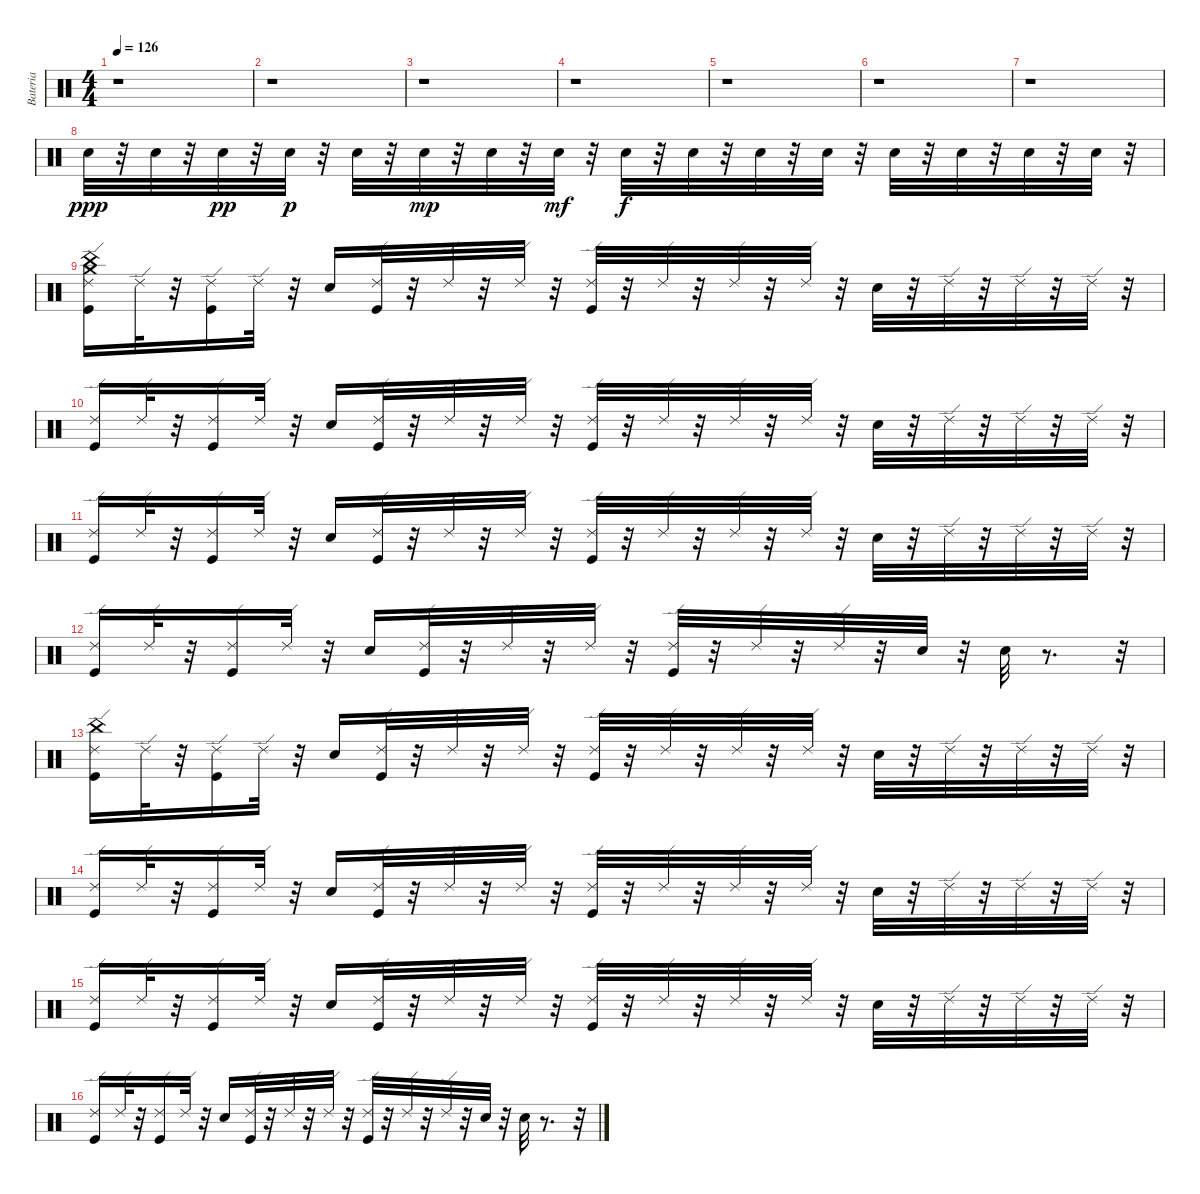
\track ("Bateria" "Bateria") {instrument percussion}
\staff {score}
\articulation defaults
\ts (4 4)
\tempo 126
\clef neutral
\ks c
r.1{dy ppp} |
r.1 |
r.1 |
r.1 |
r.1 |
r.1 |
r.1 |
"Snare (hit) 2".32 r.32 "Snare (hit) 2".32 r.32 "Snare (hit) 2".32{dy pp} r.32 "Snare (hit) 2".32{dy p} r.32 "Snare (hit) 2".32 r.32 "Snare (hit) 2".32{dy mp} r.32 "Snare (hit) 2".32 r.32 "Snare (hit) 2".32{dy mf} r.32 "Snare (hit) 2".32{dy f} r.32 "Snare (hit) 2".32 r.32 "Snare (hit) 2".32 r.32 "Snare (hit) 2".32 r.32 "Snare (hit) 2".32 r.32 "Snare (hit) 2".32 r.32 "Snare (hit) 2".32 r.32 "Snare (hit) 2".32 r.32 |
("Ride (edge) 2" "Kick (hit)" "Crash medium (hit)" "China (hit)").16 "Ride (edge) 2".32 r.32 ("Ride (edge) 2" "Kick (hit)").16 "Ride (edge) 2".32 r.32 "Snare (hit) 2".16 ("Kick (hit)" "Ride (edge) 2").32 r.32 "Ride (edge) 2".32 r.32 "Ride (edge) 2".32 r.32 ("Ride (edge) 2" "Kick (hit)").32 r.32 "Ride (edge) 2".32 r.32 "Ride (edge) 2".32 r.32 "Ride (edge) 2".32 r.32 "Snare (hit) 2".32 r.32 "Ride (edge) 2".32 r.32 "Ride (edge) 2".32 r.32 "Ride (edge) 2".32 r.32 |
("Ride (edge) 2" "Kick (hit)").16 "Ride (edge) 2".32 r.32 ("Kick (hit)" "Ride (edge) 2").16 "Ride (edge) 2".32 r.32 "Snare (hit) 2".16 ("Kick (hit)" "Ride (edge) 2").32 r.32 "Ride (edge) 2".32 r.32 "Ride (edge) 2".32 r.32 ("Ride (edge) 2" "Kick (hit)").32 r.32 "Ride (edge) 2".32 r.32 "Ride (edge) 2".32 r.32 "Ride (edge) 2".32 r.32 "Snare (hit) 2".32 r.32 "Ride (edge) 2".32 r.32 "Ride (edge) 2".32 r.32 "Ride (edge) 2".32 r.32 |
("Kick (hit)" "Ride (edge) 2").16 "Ride (edge) 2".32 r.32 ("Ride (edge) 2" "Kick (hit)").16 "Ride (edge) 2".32 r.32 "Snare (hit) 2".16 ("Ride (edge) 2" "Kick (hit)").32 r.32 "Ride (edge) 2".32 r.32 "Ride (edge) 2".32 r.32 ("Ride (edge) 2" "Kick (hit)").32 r.32 "Ride (edge) 2".32 r.32 "Ride (edge) 2".32 r.32 "Ride (edge) 2".32 r.32 "Snare (hit) 2".32 r.32 "Ride (edge) 2".32 r.32 "Ride (edge) 2".32 r.32 "Ride (edge) 2".32 r.32 |
("Ride (edge) 2" "Kick (hit)").16 "Ride (edge) 2".32 r.32 ("Kick (hit)" "Ride (edge) 2").16 "Ride (edge) 2".32 r.32 "Snare (hit) 2".16 ("Kick (hit)" "Ride (edge) 2").32 r.32 "Ride (edge) 2".32 r.32 "Ride (edge) 2".32 r.32 ("Kick (hit)" "Ride (edge) 2").32 r.32 "Ride (edge) 2".32 r.32 "Ride (edge) 2".32 r.32 "Snare (hit) 2".32 r.32 "Snare (hit) 2".32 r.8{d} r.32 |
("Ride (edge) 2" "Kick (hit)" "China (hit)").16 "Ride (edge) 2".32 r.32 ("Ride (edge) 2" "Kick (hit)").16 "Ride (edge) 2".32 r.32 "Snare (hit) 2".16 ("Kick (hit)" "Ride (edge) 2").32 r.32 "Ride (edge) 2".32 r.32 "Ride (edge) 2".32 r.32 ("Ride (edge) 2" "Kick (hit)").32 r.32 "Ride (edge) 2".32 r.32 "Ride (edge) 2".32 r.32 "Ride (edge) 2".32 r.32 "Snare (hit) 2".32 r.32 "Ride (edge) 2".32 r.32 "Ride (edge) 2".32 r.32 "Ride (edge) 2".32 r.32 |
("Ride (edge) 2" "Kick (hit)").16 "Ride (edge) 2".32 r.32 ("Kick (hit)" "Ride (edge) 2").16 "Ride (edge) 2".32 r.32 "Snare (hit) 2".16 ("Kick (hit)" "Ride (edge) 2").32 r.32 "Ride (edge) 2".32 r.32 "Ride (edge) 2".32 r.32 ("Ride (edge) 2" "Kick (hit)").32 r.32 "Ride (edge) 2".32 r.32 "Ride (edge) 2".32 r.32 "Ride (edge) 2".32 r.32 "Snare (hit) 2".32 r.32 "Ride (edge) 2".32 r.32 "Ride (edge) 2".32 r.32 "Ride (edge) 2".32 r.32 |
("Kick (hit)" "Ride (edge) 2").16 "Ride (edge) 2".32 r.32 ("Ride (edge) 2" "Kick (hit)").16 "Ride (edge) 2".32 r.32 "Snare (hit) 2".16 ("Ride (edge) 2" "Kick (hit)").32 r.32 "Ride (edge) 2".32 r.32 "Ride (edge) 2".32 r.32 ("Ride (edge) 2" "Kick (hit)").32 r.32 "Ride (edge) 2".32 r.32 "Ride (edge) 2".32 r.32 "Ride (edge) 2".32 r.32 "Snare (hit) 2".32 r.32 "Ride (edge) 2".32 r.32 "Ride (edge) 2".32 r.32 "Ride (edge) 2".32 r.32 |
("Ride (edge) 2" "Kick (hit)").16 "Ride (edge) 2".32 r.32 ("Kick (hit)" "Ride (edge) 2").16 "Ride (edge) 2".32 r.32 "Snare (hit) 2".16 ("Kick (hit)" "Ride (edge) 2").32 r.32 "Ride (edge) 2".32 r.32 "Ride (edge) 2".32 r.32 ("Kick (hit)" "Ride (edge) 2").32 r.32 "Ride (edge) 2".32 r.32 "Ride (edge) 2".32 r.32 "Snare (hit) 2".32 r.32 "Snare (hit) 2".32 r.8{d} r.32
